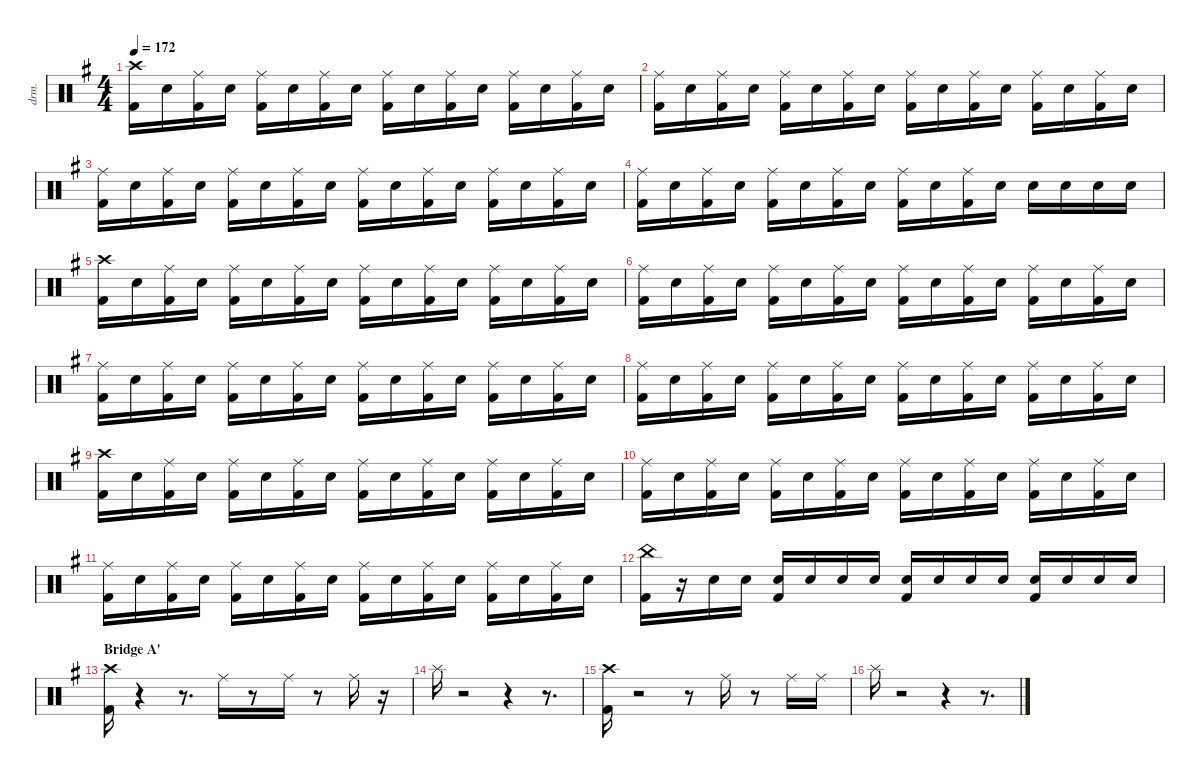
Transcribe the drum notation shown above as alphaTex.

\defaultSystemsLayout 4
\hideDynamics
\bracketExtendMode nobrackets
\otherSystemsTrackNameOrientation horizontal
\track ("Shinya" "drm.") {instrument percussion}
\staff {score}
\articulation defaults
\ts (4 4)
\tempo 172
\clef neutral
\ks eminor
("Kick (hit) 2"{acc forcenatural} "Crash high (hit)"{acc #}).16{dy fff beam Down} "Snare (hit) 2"{acc forcenatural}.16{beam Down} ("Kick (hit) 2"{acc forcenatural} "Ride (middle)"{acc #}).16{beam Down} "Snare (hit) 2"{acc forcenatural}.16{beam Down} ("Kick (hit) 2"{acc forcenatural} "Ride (middle)"{acc #}).16{beam Down} "Snare (hit) 2"{acc forcenatural}.16{beam Down} ("Kick (hit) 2"{acc forcenatural} "Ride (middle)"{acc #}).16{beam Down} "Snare (hit) 2"{acc forcenatural}.16{beam Down} ("Kick (hit) 2"{acc forcenatural} "Ride (middle)"{acc #}).16{beam Down} "Snare (hit) 2"{acc forcenatural}.16{beam Down} ("Kick (hit) 2"{acc forcenatural} "Ride (middle)"{acc #}).16{beam Down} "Snare (hit) 2"{acc forcenatural}.16{beam Down} ("Kick (hit) 2"{acc forcenatural} "Ride (middle)"{acc #}).16{beam Down} "Snare (hit) 2"{acc forcenatural}.16{beam Down} ("Kick (hit) 2"{acc forcenatural} "Ride (middle)"{acc #}).16{beam Down} "Snare (hit) 2"{acc forcenatural}.16{beam Down} |
("Kick (hit) 2"{acc forcenatural} "Ride (middle)"{acc #}).16{beam Down} "Snare (hit) 2"{acc forcenatural}.16{beam Down} ("Kick (hit) 2"{acc forcenatural} "Ride (middle)"{acc #}).16{beam Down} "Snare (hit) 2"{acc forcenatural}.16{beam Down} ("Kick (hit) 2"{acc forcenatural} "Ride (middle)"{acc #}).16{beam Down} "Snare (hit) 2"{acc forcenatural}.16{beam Down} ("Kick (hit) 2"{acc forcenatural} "Ride (middle)"{acc #}).16{beam Down} "Snare (hit) 2"{acc forcenatural}.16{beam Down} ("Kick (hit) 2"{acc forcenatural} "Ride (middle)"{acc #}).16{beam Down} "Snare (hit) 2"{acc forcenatural}.16{beam Down} ("Kick (hit) 2"{acc forcenatural} "Ride (middle)"{acc #}).16{beam Down} "Snare (hit) 2"{acc forcenatural}.16{beam Down} ("Kick (hit) 2"{acc forcenatural} "Ride (middle)"{acc #}).16{beam Down} "Snare (hit) 2"{acc forcenatural}.16{beam Down} ("Kick (hit) 2"{acc forcenatural} "Ride (middle)"{acc #}).16{beam Down} "Snare (hit) 2"{acc forcenatural}.16{beam Down} |
("Kick (hit) 2"{acc forcenatural} "Ride (middle)"{acc #}).16{beam Down} "Snare (hit) 2"{acc forcenatural}.16{beam Down} ("Kick (hit) 2"{acc forcenatural} "Ride (middle)"{acc #}).16{beam Down} "Snare (hit) 2"{acc forcenatural}.16{beam Down} ("Kick (hit) 2"{acc forcenatural} "Ride (middle)"{acc #}).16{beam Down} "Snare (hit) 2"{acc forcenatural}.16{beam Down} ("Kick (hit) 2"{acc forcenatural} "Ride (middle)"{acc #}).16{beam Down} "Snare (hit) 2"{acc forcenatural}.16{beam Down} ("Kick (hit) 2"{acc forcenatural} "Ride (middle)"{acc #}).16{beam Down} "Snare (hit) 2"{acc forcenatural}.16{beam Down} ("Kick (hit) 2"{acc forcenatural} "Ride (middle)"{acc #}).16{beam Down} "Snare (hit) 2"{acc forcenatural}.16{beam Down} ("Kick (hit) 2"{acc forcenatural} "Ride (middle)"{acc #}).16{beam Down} "Snare (hit) 2"{acc forcenatural}.16{beam Down} ("Kick (hit) 2"{acc forcenatural} "Ride (middle)"{acc #}).16{beam Down} "Snare (hit) 2"{acc forcenatural}.16{beam Down} |
("Kick (hit) 2"{acc forcenatural} "Ride (middle)"{acc #}).16{beam Down} "Snare (hit) 2"{acc forcenatural}.16{beam Down} ("Kick (hit) 2"{acc forcenatural} "Ride (middle)"{acc #}).16{beam Down} "Snare (hit) 2"{acc forcenatural}.16{beam Down} ("Kick (hit) 2"{acc forcenatural} "Ride (middle)"{acc #}).16{beam Down} "Snare (hit) 2"{acc forcenatural}.16{beam Down} ("Kick (hit) 2"{acc forcenatural} "Ride (middle)"{acc #}).16{beam Down} "Snare (hit) 2"{acc forcenatural}.16{beam Down} ("Kick (hit) 2"{acc forcenatural} "Ride (middle)"{acc #}).16{beam Down} "Snare (hit) 2"{acc forcenatural}.16{beam Down} ("Kick (hit) 2"{acc forcenatural} "Ride (middle)"{acc #}).16{beam Down} "Snare (hit) 2"{acc forcenatural}.16{beam Down} "Snare (hit) 2"{acc forcenatural}.16{beam Down} "Snare (hit) 2"{acc forcenatural}.16{beam Down} "Snare (hit) 2"{acc forcenatural}.16{beam Down} "Snare (hit) 2"{acc forcenatural}.16{beam Down} |
("Kick (hit) 2"{acc forcenatural} "Crash high (hit)"{acc #}).16{beam Down} "Snare (hit) 2"{acc forcenatural}.16{beam Down} ("Kick (hit) 2"{acc forcenatural} "Ride (middle)"{acc #}).16{beam Down} "Snare (hit) 2"{acc forcenatural}.16{beam Down} ("Kick (hit) 2"{acc forcenatural} "Ride (middle)"{acc #}).16{beam Down} "Snare (hit) 2"{acc forcenatural}.16{beam Down} ("Kick (hit) 2"{acc forcenatural} "Ride (middle)"{acc #}).16{beam Down} "Snare (hit) 2"{acc forcenatural}.16{beam Down} ("Kick (hit) 2"{acc forcenatural} "Ride (middle)"{acc #}).16{beam Down} "Snare (hit) 2"{acc forcenatural}.16{beam Down} ("Kick (hit) 2"{acc forcenatural} "Ride (middle)"{acc #}).16{beam Down} "Snare (hit) 2"{acc forcenatural}.16{beam Down} ("Kick (hit) 2"{acc forcenatural} "Ride (middle)"{acc #}).16{beam Down} "Snare (hit) 2"{acc forcenatural}.16{beam Down} ("Kick (hit) 2"{acc forcenatural} "Ride (middle)"{acc #}).16{beam Down} "Snare (hit) 2"{acc forcenatural}.16{beam Down} |
("Kick (hit) 2"{acc forcenatural} "Ride (middle)"{acc #}).16{beam Down} "Snare (hit) 2"{acc forcenatural}.16{beam Down} ("Kick (hit) 2"{acc forcenatural} "Ride (middle)"{acc #}).16{beam Down} "Snare (hit) 2"{acc forcenatural}.16{beam Down} ("Kick (hit) 2"{acc forcenatural} "Ride (middle)"{acc #}).16{beam Down} "Snare (hit) 2"{acc forcenatural}.16{beam Down} ("Kick (hit) 2"{acc forcenatural} "Ride (middle)"{acc #}).16{beam Down} "Snare (hit) 2"{acc forcenatural}.16{beam Down} ("Kick (hit) 2"{acc forcenatural} "Ride (middle)"{acc #}).16{beam Down} "Snare (hit) 2"{acc forcenatural}.16{beam Down} ("Kick (hit) 2"{acc forcenatural} "Ride (middle)"{acc #}).16{beam Down} "Snare (hit) 2"{acc forcenatural}.16{beam Down} ("Kick (hit) 2"{acc forcenatural} "Ride (middle)"{acc #}).16{beam Down} "Snare (hit) 2"{acc forcenatural}.16{beam Down} ("Kick (hit) 2"{acc forcenatural} "Ride (middle)"{acc #}).16{beam Down} "Snare (hit) 2"{acc forcenatural}.16{beam Down} |
("Kick (hit) 2"{acc forcenatural} "Ride (middle)"{acc #}).16{beam Down} "Snare (hit) 2"{acc forcenatural}.16{beam Down} ("Kick (hit) 2"{acc forcenatural} "Ride (middle)"{acc #}).16{beam Down} "Snare (hit) 2"{acc forcenatural}.16{beam Down} ("Kick (hit) 2"{acc forcenatural} "Ride (middle)"{acc #}).16{beam Down} "Snare (hit) 2"{acc forcenatural}.16{beam Down} ("Kick (hit) 2"{acc forcenatural} "Ride (middle)"{acc #}).16{beam Down} "Snare (hit) 2"{acc forcenatural}.16{beam Down} ("Kick (hit) 2"{acc forcenatural} "Ride (middle)"{acc #}).16{beam Down} "Snare (hit) 2"{acc forcenatural}.16{beam Down} ("Kick (hit) 2"{acc forcenatural} "Ride (middle)"{acc #}).16{beam Down} "Snare (hit) 2"{acc forcenatural}.16{beam Down} ("Kick (hit) 2"{acc forcenatural} "Ride (middle)"{acc #}).16{beam Down} "Snare (hit) 2"{acc forcenatural}.16{beam Down} ("Kick (hit) 2"{acc forcenatural} "Ride (middle)"{acc #}).16{beam Down} "Snare (hit) 2"{acc forcenatural}.16{beam Down} |
("Kick (hit) 2"{acc forcenatural} "Ride (middle)"{acc #}).16{beam Down} "Snare (hit) 2"{acc forcenatural}.16{beam Down} ("Kick (hit) 2"{acc forcenatural} "Ride (middle)"{acc #}).16{beam Down} "Snare (hit) 2"{acc forcenatural}.16{beam Down} ("Kick (hit) 2"{acc forcenatural} "Ride (middle)"{acc #}).16{beam Down} "Snare (hit) 2"{acc forcenatural}.16{beam Down} ("Kick (hit) 2"{acc forcenatural} "Ride (middle)"{acc #}).16{beam Down} "Snare (hit) 2"{acc forcenatural}.16{beam Down} ("Kick (hit) 2"{acc forcenatural} "Ride (middle)"{acc #}).16{beam Down} "Snare (hit) 2"{acc forcenatural}.16{beam Down} ("Kick (hit) 2"{acc forcenatural} "Ride (middle)"{acc #}).16{beam Down} "Snare (hit) 2"{acc forcenatural}.16{beam Down} ("Kick (hit) 2"{acc forcenatural} "Ride (middle)"{acc #}).16{beam Down} "Snare (hit) 2"{acc forcenatural}.16{beam Down} ("Kick (hit) 2"{acc forcenatural} "Ride (middle)"{acc #}).16{beam Down} "Snare (hit) 2"{acc forcenatural}.16{beam Down} |
("Kick (hit) 2"{acc forcenatural} "Crash high (hit)"{acc #}).16{beam Down} "Snare (hit) 2"{acc forcenatural}.16{beam Down} ("Kick (hit) 2"{acc forcenatural} "Ride (middle)"{acc #}).16{beam Down} "Snare (hit) 2"{acc forcenatural}.16{beam Down} ("Kick (hit) 2"{acc forcenatural} "Ride (middle)"{acc #}).16{beam Down} "Snare (hit) 2"{acc forcenatural}.16{beam Down} ("Kick (hit) 2"{acc forcenatural} "Ride (middle)"{acc #}).16{beam Down} "Snare (hit) 2"{acc forcenatural}.16{beam Down} ("Kick (hit) 2"{acc forcenatural} "Ride (middle)"{acc #}).16{beam Down} "Snare (hit) 2"{acc forcenatural}.16{beam Down} ("Kick (hit) 2"{acc forcenatural} "Ride (middle)"{acc #}).16{beam Down} "Snare (hit) 2"{acc forcenatural}.16{beam Down} ("Kick (hit) 2"{acc forcenatural} "Ride (middle)"{acc #}).16{beam Down} "Snare (hit) 2"{acc forcenatural}.16{beam Down} ("Kick (hit) 2"{acc forcenatural} "Ride (middle)"{acc #}).16{beam Down} "Snare (hit) 2"{acc forcenatural}.16{beam Down} |
("Kick (hit) 2"{acc forcenatural} "Ride (middle)"{acc #}).16{beam Down} "Snare (hit) 2"{acc forcenatural}.16{beam Down} ("Kick (hit) 2"{acc forcenatural} "Ride (middle)"{acc #}).16{beam Down} "Snare (hit) 2"{acc forcenatural}.16{beam Down} ("Kick (hit) 2"{acc forcenatural} "Ride (middle)"{acc #}).16{beam Down} "Snare (hit) 2"{acc forcenatural}.16{beam Down} ("Kick (hit) 2"{acc forcenatural} "Ride (middle)"{acc #}).16{beam Down} "Snare (hit) 2"{acc forcenatural}.16{beam Down} ("Kick (hit) 2"{acc forcenatural} "Ride (middle)"{acc #}).16{beam Down} "Snare (hit) 2"{acc forcenatural}.16{beam Down} ("Kick (hit) 2"{acc forcenatural} "Ride (middle)"{acc #}).16{beam Down} "Snare (hit) 2"{acc forcenatural}.16{beam Down} ("Kick (hit) 2"{acc forcenatural} "Ride (middle)"{acc #}).16{beam Down} "Snare (hit) 2"{acc forcenatural}.16{beam Down} ("Kick (hit) 2"{acc forcenatural} "Ride (middle)"{acc #}).16{beam Down} "Snare (hit) 2"{acc forcenatural}.16{beam Down} |
("Kick (hit) 2"{acc forcenatural} "Ride (middle)"{acc #}).16{beam Down} "Snare (hit) 2"{acc forcenatural}.16{beam Down} ("Kick (hit) 2"{acc forcenatural} "Ride (middle)"{acc #}).16{beam Down} "Snare (hit) 2"{acc forcenatural}.16{beam Down} ("Kick (hit) 2"{acc forcenatural} "Ride (middle)"{acc #}).16{beam Down} "Snare (hit) 2"{acc forcenatural}.16{beam Down} ("Kick (hit) 2"{acc forcenatural} "Ride (middle)"{acc #}).16{beam Down} "Snare (hit) 2"{acc forcenatural}.16{beam Down} ("Kick (hit) 2"{acc forcenatural} "Ride (middle)"{acc #}).16{beam Down} "Snare (hit) 2"{acc forcenatural}.16{beam Down} ("Kick (hit) 2"{acc forcenatural} "Ride (middle)"{acc #}).16{beam Down} "Snare (hit) 2"{acc forcenatural}.16{beam Down} ("Kick (hit) 2"{acc forcenatural} "Ride (middle)"{acc #}).16{beam Down} "Snare (hit) 2"{acc forcenatural}.16{beam Down} ("Kick (hit) 2"{acc forcenatural} "Ride (middle)"{acc #}).16{beam Down} "Snare (hit) 2"{acc forcenatural}.16{beam Down} |
("Kick (hit) 2"{acc forcenatural} "China (hit)"{acc forcenatural}).16{beam Down} r.16{beam Down} "Snare (hit) 2"{acc forcenatural}.16{beam Down} "Snare (hit) 2"{acc forcenatural}.16{beam Down} ("Kick (hit) 2"{acc forcenatural} "Snare (hit) 2"{acc forcenatural}).16{beam Up} "Snare (hit) 2"{acc forcenatural}.16{beam Up} "Snare (hit) 2"{acc forcenatural}.16{beam Up} "Snare (hit) 2"{acc forcenatural}.16{beam Up} ("Kick (hit) 2"{acc forcenatural} "Snare (hit) 2"{acc forcenatural}).16{beam Up} "Snare (hit) 2"{acc forcenatural}.16{beam Up} "Snare (hit) 2"{acc forcenatural}.16{beam Up} "Snare (hit) 2"{acc forcenatural}.16{beam Up} ("Kick (hit) 2"{acc forcenatural} "Snare (hit) 2"{acc forcenatural}).16{beam Up} "Snare (hit) 2"{acc forcenatural}.16{beam Up} "Snare (hit) 2"{acc forcenatural}.16{beam Up} "Snare (hit) 2"{acc forcenatural}.16{beam Up} |
\section ("" "Bridge A'")
("Kick (hit) 2"{acc forcenatural} "Crash high (hit)"{acc #}).16{beam Down} r.4{beam Down} r.8{d beam Down} "Ride (middle)"{acc #}.16{beam Down} r.8{beam Down} "Ride (middle)"{acc #}.16{beam Down} r.8{beam Down} "Ride (middle)"{acc #}.16{beam Down} r.16{beam Down} |
"Splash (hit)"{acc forcenatural}.16{beam Down} r.2{beam Down} r.4{beam Down} r.8{d beam Down} |
("Kick (hit) 2"{acc forcenatural} "Crash high (hit)"{acc #}).16{beam Down} r.2{beam Down} r.8{beam Down} "Ride (middle)"{acc #}.16{beam Down} r.8{beam Down} "Ride (middle)"{acc #}.16{beam Down} "Ride (middle)"{acc #}.16{beam Down} |
"Splash (hit)"{acc forcenatural}.16{beam Down} r.2{beam Down} r.4{beam Down} r.8{d beam Down}
